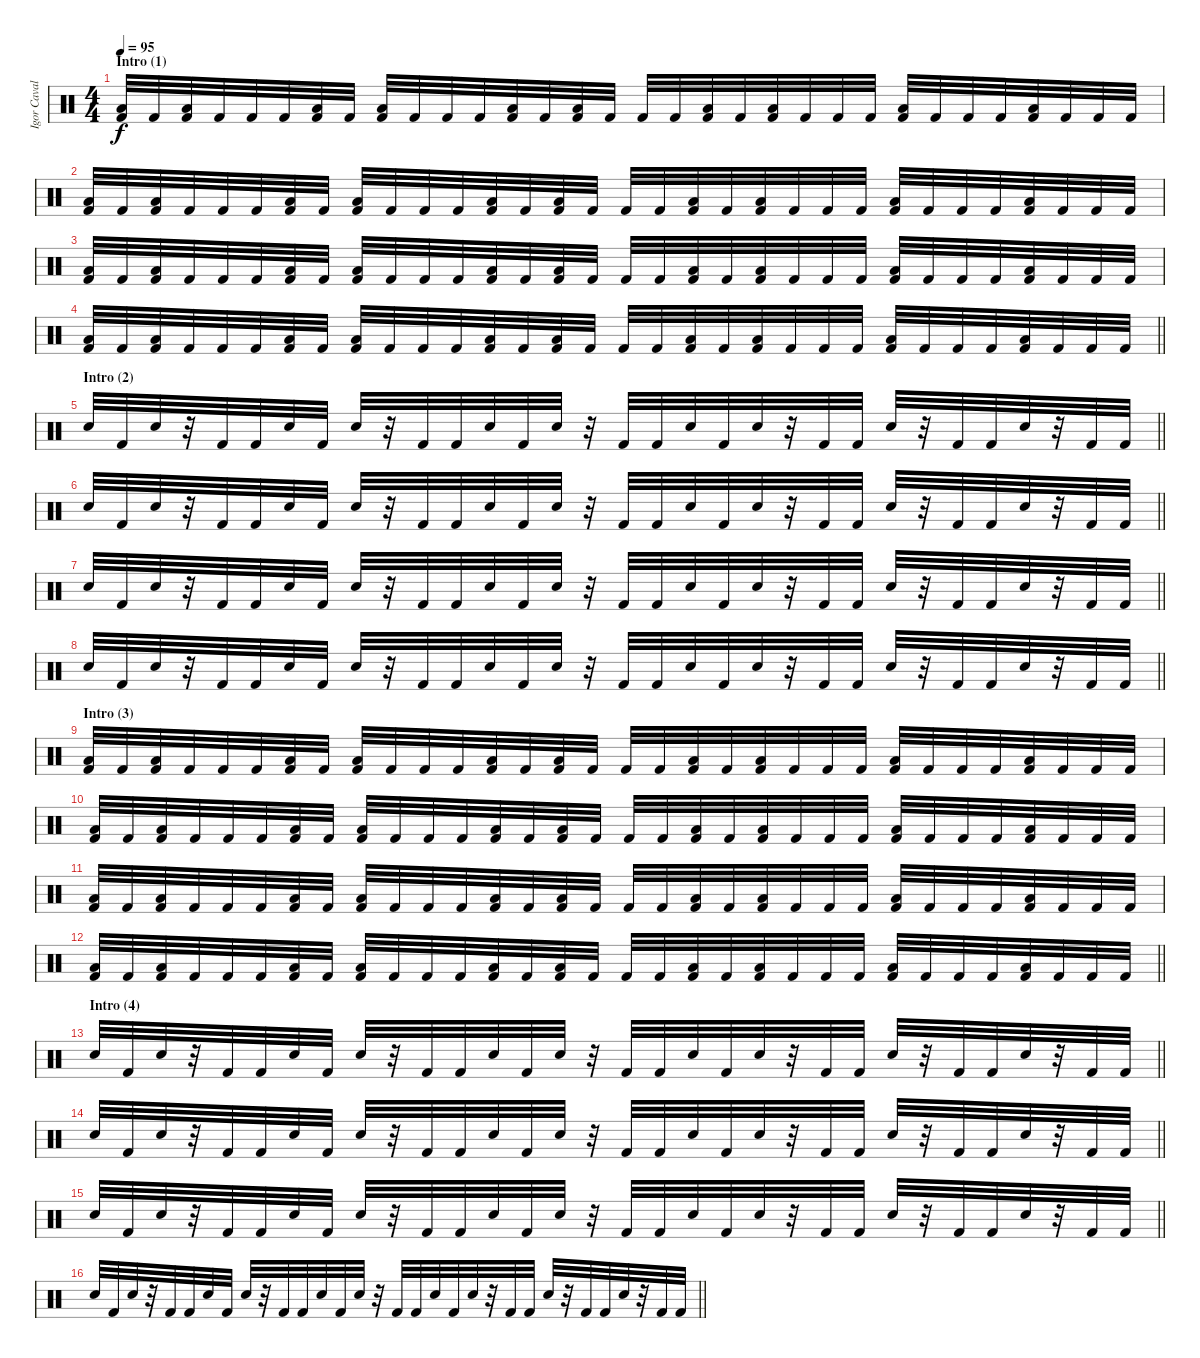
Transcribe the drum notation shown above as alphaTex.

\track ("Igor Cavalera" "Igor Caval") {instrument percussion}
\staff {score}
\articulation defaults
\ts (4 4)
\section ("" "Intro (1)")
\tempo 95
\clef neutral
\ks c
("Low Floor Tom (hit)" "Kick (hit) 2").32{dy f} "Kick (hit) 2".32 ("Low Floor Tom (hit)" "Kick (hit) 2").32 "Kick (hit) 2".32 "Kick (hit) 2".32 "Kick (hit) 2".32 ("Low Floor Tom (hit)" "Kick (hit) 2").32 "Kick (hit) 2".32 ("Low Floor Tom (hit)" "Kick (hit) 2").32 "Kick (hit) 2".32 "Kick (hit) 2".32 "Kick (hit) 2".32 ("Low Floor Tom (hit)" "Kick (hit) 2").32 "Kick (hit) 2".32 ("Low Floor Tom (hit)" "Kick (hit) 2").32 "Kick (hit) 2".32 "Kick (hit) 2".32 "Kick (hit) 2".32 ("Low Floor Tom (hit)" "Kick (hit) 2").32 "Kick (hit) 2".32 ("Low Floor Tom (hit)" "Kick (hit) 2").32 "Kick (hit) 2".32 "Kick (hit) 2".32 "Kick (hit) 2".32 ("Low Floor Tom (hit)" "Kick (hit) 2").32 "Kick (hit) 2".32 "Kick (hit) 2".32 "Kick (hit) 2".32 ("Low Floor Tom (hit)" "Kick (hit) 2").32 "Kick (hit) 2".32 "Kick (hit) 2".32 "Kick (hit) 2".32 |
("Low Floor Tom (hit)" "Kick (hit) 2").32 "Kick (hit) 2".32 ("Low Floor Tom (hit)" "Kick (hit) 2").32 "Kick (hit) 2".32 "Kick (hit) 2".32 "Kick (hit) 2".32 ("Low Floor Tom (hit)" "Kick (hit) 2").32 "Kick (hit) 2".32 ("Low Floor Tom (hit)" "Kick (hit) 2").32 "Kick (hit) 2".32 "Kick (hit) 2".32 "Kick (hit) 2".32 ("Low Floor Tom (hit)" "Kick (hit) 2").32 "Kick (hit) 2".32 ("Low Floor Tom (hit)" "Kick (hit) 2").32 "Kick (hit) 2".32 "Kick (hit) 2".32 "Kick (hit) 2".32 ("Low Floor Tom (hit)" "Kick (hit) 2").32 "Kick (hit) 2".32 ("Low Floor Tom (hit)" "Kick (hit) 2").32 "Kick (hit) 2".32 "Kick (hit) 2".32 "Kick (hit) 2".32 ("Low Floor Tom (hit)" "Kick (hit) 2").32 "Kick (hit) 2".32 "Kick (hit) 2".32 "Kick (hit) 2".32 ("Low Floor Tom (hit)" "Kick (hit) 2").32 "Kick (hit) 2".32 "Kick (hit) 2".32 "Kick (hit) 2".32 |
("Low Floor Tom (hit)" "Kick (hit) 2").32 "Kick (hit) 2".32 ("Low Floor Tom (hit)" "Kick (hit) 2").32 "Kick (hit) 2".32 "Kick (hit) 2".32 "Kick (hit) 2".32 ("Low Floor Tom (hit)" "Kick (hit) 2").32 "Kick (hit) 2".32 ("Low Floor Tom (hit)" "Kick (hit) 2").32 "Kick (hit) 2".32 "Kick (hit) 2".32 "Kick (hit) 2".32 ("Low Floor Tom (hit)" "Kick (hit) 2").32 "Kick (hit) 2".32 ("Low Floor Tom (hit)" "Kick (hit) 2").32 "Kick (hit) 2".32 "Kick (hit) 2".32 "Kick (hit) 2".32 ("Low Floor Tom (hit)" "Kick (hit) 2").32 "Kick (hit) 2".32 ("Low Floor Tom (hit)" "Kick (hit) 2").32 "Kick (hit) 2".32 "Kick (hit) 2".32 "Kick (hit) 2".32 ("Low Floor Tom (hit)" "Kick (hit) 2").32 "Kick (hit) 2".32 "Kick (hit) 2".32 "Kick (hit) 2".32 ("Low Floor Tom (hit)" "Kick (hit) 2").32 "Kick (hit) 2".32 "Kick (hit) 2".32 "Kick (hit) 2".32 |
\barLineRight lightlight
("Low Floor Tom (hit)" "Kick (hit) 2").32 "Kick (hit) 2".32 ("Low Floor Tom (hit)" "Kick (hit) 2").32 "Kick (hit) 2".32 "Kick (hit) 2".32 "Kick (hit) 2".32 ("Low Floor Tom (hit)" "Kick (hit) 2").32 "Kick (hit) 2".32 ("Low Floor Tom (hit)" "Kick (hit) 2").32 "Kick (hit) 2".32 "Kick (hit) 2".32 "Kick (hit) 2".32 ("Low Floor Tom (hit)" "Kick (hit) 2").32 "Kick (hit) 2".32 ("Low Floor Tom (hit)" "Kick (hit) 2").32 "Kick (hit) 2".32 "Kick (hit) 2".32 "Kick (hit) 2".32 ("Low Floor Tom (hit)" "Kick (hit) 2").32 "Kick (hit) 2".32 ("Low Floor Tom (hit)" "Kick (hit) 2").32 "Kick (hit) 2".32 "Kick (hit) 2".32 "Kick (hit) 2".32 ("Low Floor Tom (hit)" "Kick (hit) 2").32 "Kick (hit) 2".32 "Kick (hit) 2".32 "Kick (hit) 2".32 ("Low Floor Tom (hit)" "Kick (hit) 2").32 "Kick (hit) 2".32 "Kick (hit) 2".32 "Kick (hit) 2".32 |
\section ("" "Intro (2)")
\barLineRight lightlight "Electric Snare (hit)".32 "Kick (hit) 2".32 "Electric Snare (hit)".32
r.32 "Kick (hit) 2".32 "Kick (hit) 2".32 "Electric Snare (hit)".32 "Kick (hit) 2".32 "Electric Snare (hit)".32 r.32 "Kick (hit) 2".32 "Kick (hit) 2".32 "Electric Snare (hit)".32 "Kick (hit) 2".32 "Electric Snare (hit)".32 r.32 "Kick (hit) 2".32 "Kick (hit) 2".32 "Electric Snare (hit)".32 "Kick (hit) 2".32 "Electric Snare (hit)".32 r.32 "Kick (hit) 2".32 "Kick (hit) 2".32 "Electric Snare (hit)".32 r.32 "Kick (hit) 2".32 "Kick (hit) 2".32 "Electric Snare (hit)".32 r.32 "Kick (hit) 2".32 "Kick (hit) 2".32 |
\barLineRight lightlight "Electric Snare (hit)".32 "Kick (hit) 2".32 "Electric Snare (hit)".32
r.32 "Kick (hit) 2".32 "Kick (hit) 2".32 "Electric Snare (hit)".32 "Kick (hit) 2".32 "Electric Snare (hit)".32 r.32 "Kick (hit) 2".32 "Kick (hit) 2".32 "Electric Snare (hit)".32 "Kick (hit) 2".32 "Electric Snare (hit)".32 r.32 "Kick (hit) 2".32 "Kick (hit) 2".32 "Electric Snare (hit)".32 "Kick (hit) 2".32 "Electric Snare (hit)".32 r.32 "Kick (hit) 2".32 "Kick (hit) 2".32 "Electric Snare (hit)".32 r.32 "Kick (hit) 2".32 "Kick (hit) 2".32 "Electric Snare (hit)".32 r.32 "Kick (hit) 2".32 "Kick (hit) 2".32 |
\barLineRight lightlight "Electric Snare (hit)".32 "Kick (hit) 2".32 "Electric Snare (hit)".32
r.32 "Kick (hit) 2".32 "Kick (hit) 2".32 "Electric Snare (hit)".32 "Kick (hit) 2".32 "Electric Snare (hit)".32 r.32 "Kick (hit) 2".32 "Kick (hit) 2".32 "Electric Snare (hit)".32 "Kick (hit) 2".32 "Electric Snare (hit)".32 r.32 "Kick (hit) 2".32 "Kick (hit) 2".32 "Electric Snare (hit)".32 "Kick (hit) 2".32 "Electric Snare (hit)".32 r.32 "Kick (hit) 2".32 "Kick (hit) 2".32 "Electric Snare (hit)".32 r.32 "Kick (hit) 2".32 "Kick (hit) 2".32 "Electric Snare (hit)".32 r.32 "Kick (hit) 2".32 "Kick (hit) 2".32 |
\barLineRight lightlight "Electric Snare (hit)".32 "Kick (hit) 2".32 "Electric Snare (hit)".32
r.32 "Kick (hit) 2".32 "Kick (hit) 2".32 "Electric Snare (hit)".32 "Kick (hit) 2".32 "Electric Snare (hit)".32 r.32 "Kick (hit) 2".32 "Kick (hit) 2".32 "Electric Snare (hit)".32 "Kick (hit) 2".32 "Electric Snare (hit)".32 r.32 "Kick (hit) 2".32 "Kick (hit) 2".32 "Electric Snare (hit)".32 "Kick (hit) 2".32 "Electric Snare (hit)".32 r.32 "Kick (hit) 2".32 "Kick (hit) 2".32 "Electric Snare (hit)".32 r.32 "Kick (hit) 2".32 "Kick (hit) 2".32 "Electric Snare (hit)".32 r.32 "Kick (hit) 2".32 "Kick (hit) 2".32 |
\section ("" "Intro (3)")
("Low Floor Tom (hit)" "Kick (hit) 2").32 "Kick (hit) 2".32 ("Low Floor Tom (hit)" "Kick (hit) 2").32 "Kick (hit) 2".32 "Kick (hit) 2".32 "Kick (hit) 2".32 ("Low Floor Tom (hit)" "Kick (hit) 2").32 "Kick (hit) 2".32 ("Low Floor Tom (hit)" "Kick (hit) 2").32 "Kick (hit) 2".32 "Kick (hit) 2".32 "Kick (hit) 2".32 ("Low Floor Tom (hit)" "Kick (hit) 2").32 "Kick (hit) 2".32 ("Low Floor Tom (hit)" "Kick (hit) 2").32 "Kick (hit) 2".32 "Kick (hit) 2".32 "Kick (hit) 2".32 ("Low Floor Tom (hit)" "Kick (hit) 2").32 "Kick (hit) 2".32 ("Low Floor Tom (hit)" "Kick (hit) 2").32 "Kick (hit) 2".32 "Kick (hit) 2".32 "Kick (hit) 2".32 ("Low Floor Tom (hit)" "Kick (hit) 2").32 "Kick (hit) 2".32 "Kick (hit) 2".32 "Kick (hit) 2".32 ("Low Floor Tom (hit)" "Kick (hit) 2").32 "Kick (hit) 2".32 "Kick (hit) 2".32 "Kick (hit) 2".32 |
("Low Floor Tom (hit)" "Kick (hit) 2").32 "Kick (hit) 2".32 ("Low Floor Tom (hit)" "Kick (hit) 2").32 "Kick (hit) 2".32 "Kick (hit) 2".32 "Kick (hit) 2".32 ("Low Floor Tom (hit)" "Kick (hit) 2").32 "Kick (hit) 2".32 ("Low Floor Tom (hit)" "Kick (hit) 2").32 "Kick (hit) 2".32 "Kick (hit) 2".32 "Kick (hit) 2".32 ("Low Floor Tom (hit)" "Kick (hit) 2").32 "Kick (hit) 2".32 ("Low Floor Tom (hit)" "Kick (hit) 2").32 "Kick (hit) 2".32 "Kick (hit) 2".32 "Kick (hit) 2".32 ("Low Floor Tom (hit)" "Kick (hit) 2").32 "Kick (hit) 2".32 ("Low Floor Tom (hit)" "Kick (hit) 2").32 "Kick (hit) 2".32 "Kick (hit) 2".32 "Kick (hit) 2".32 ("Low Floor Tom (hit)" "Kick (hit) 2").32 "Kick (hit) 2".32 "Kick (hit) 2".32 "Kick (hit) 2".32 ("Low Floor Tom (hit)" "Kick (hit) 2").32 "Kick (hit) 2".32 "Kick (hit) 2".32 "Kick (hit) 2".32 |
("Low Floor Tom (hit)" "Kick (hit) 2").32 "Kick (hit) 2".32 ("Low Floor Tom (hit)" "Kick (hit) 2").32 "Kick (hit) 2".32 "Kick (hit) 2".32 "Kick (hit) 2".32 ("Low Floor Tom (hit)" "Kick (hit) 2").32 "Kick (hit) 2".32 ("Low Floor Tom (hit)" "Kick (hit) 2").32 "Kick (hit) 2".32 "Kick (hit) 2".32 "Kick (hit) 2".32 ("Low Floor Tom (hit)" "Kick (hit) 2").32 "Kick (hit) 2".32 ("Low Floor Tom (hit)" "Kick (hit) 2").32 "Kick (hit) 2".32 "Kick (hit) 2".32 "Kick (hit) 2".32 ("Low Floor Tom (hit)" "Kick (hit) 2").32 "Kick (hit) 2".32 ("Low Floor Tom (hit)" "Kick (hit) 2").32 "Kick (hit) 2".32 "Kick (hit) 2".32 "Kick (hit) 2".32 ("Low Floor Tom (hit)" "Kick (hit) 2").32 "Kick (hit) 2".32 "Kick (hit) 2".32 "Kick (hit) 2".32 ("Low Floor Tom (hit)" "Kick (hit) 2").32 "Kick (hit) 2".32 "Kick (hit) 2".32 "Kick (hit) 2".32 |
\barLineRight lightlight
("Low Floor Tom (hit)" "Kick (hit) 2").32 "Kick (hit) 2".32 ("Low Floor Tom (hit)" "Kick (hit) 2").32 "Kick (hit) 2".32 "Kick (hit) 2".32 "Kick (hit) 2".32 ("Low Floor Tom (hit)" "Kick (hit) 2").32 "Kick (hit) 2".32 ("Low Floor Tom (hit)" "Kick (hit) 2").32 "Kick (hit) 2".32 "Kick (hit) 2".32 "Kick (hit) 2".32 ("Low Floor Tom (hit)" "Kick (hit) 2").32 "Kick (hit) 2".32 ("Low Floor Tom (hit)" "Kick (hit) 2").32 "Kick (hit) 2".32 "Kick (hit) 2".32 "Kick (hit) 2".32 ("Low Floor Tom (hit)" "Kick (hit) 2").32 "Kick (hit) 2".32 ("Low Floor Tom (hit)" "Kick (hit) 2").32 "Kick (hit) 2".32 "Kick (hit) 2".32 "Kick (hit) 2".32 ("Low Floor Tom (hit)" "Kick (hit) 2").32 "Kick (hit) 2".32 "Kick (hit) 2".32 "Kick (hit) 2".32 ("Low Floor Tom (hit)" "Kick (hit) 2").32 "Kick (hit) 2".32 "Kick (hit) 2".32 "Kick (hit) 2".32 |
\section ("" "Intro (4)")
\barLineRight lightlight "Electric Snare (hit)".32 "Kick (hit) 2".32 "Electric Snare (hit)".32
r.32 "Kick (hit) 2".32 "Kick (hit) 2".32 "Electric Snare (hit)".32 "Kick (hit) 2".32 "Electric Snare (hit)".32 r.32 "Kick (hit) 2".32 "Kick (hit) 2".32 "Electric Snare (hit)".32 "Kick (hit) 2".32 "Electric Snare (hit)".32 r.32 "Kick (hit) 2".32 "Kick (hit) 2".32 "Electric Snare (hit)".32 "Kick (hit) 2".32 "Electric Snare (hit)".32 r.32 "Kick (hit) 2".32 "Kick (hit) 2".32 "Electric Snare (hit)".32 r.32 "Kick (hit) 2".32 "Kick (hit) 2".32 "Electric Snare (hit)".32 r.32 "Kick (hit) 2".32 "Kick (hit) 2".32 |
\barLineRight lightlight "Electric Snare (hit)".32 "Kick (hit) 2".32 "Electric Snare (hit)".32
r.32 "Kick (hit) 2".32 "Kick (hit) 2".32 "Electric Snare (hit)".32 "Kick (hit) 2".32 "Electric Snare (hit)".32 r.32 "Kick (hit) 2".32 "Kick (hit) 2".32 "Electric Snare (hit)".32 "Kick (hit) 2".32 "Electric Snare (hit)".32 r.32 "Kick (hit) 2".32 "Kick (hit) 2".32 "Electric Snare (hit)".32 "Kick (hit) 2".32 "Electric Snare (hit)".32 r.32 "Kick (hit) 2".32 "Kick (hit) 2".32 "Electric Snare (hit)".32 r.32 "Kick (hit) 2".32 "Kick (hit) 2".32 "Electric Snare (hit)".32 r.32 "Kick (hit) 2".32 "Kick (hit) 2".32 |
\barLineRight lightlight "Electric Snare (hit)".32 "Kick (hit) 2".32 "Electric Snare (hit)".32
r.32 "Kick (hit) 2".32 "Kick (hit) 2".32 "Electric Snare (hit)".32 "Kick (hit) 2".32 "Electric Snare (hit)".32 r.32 "Kick (hit) 2".32 "Kick (hit) 2".32 "Electric Snare (hit)".32 "Kick (hit) 2".32 "Electric Snare (hit)".32 r.32 "Kick (hit) 2".32 "Kick (hit) 2".32 "Electric Snare (hit)".32 "Kick (hit) 2".32 "Electric Snare (hit)".32 r.32 "Kick (hit) 2".32 "Kick (hit) 2".32 "Electric Snare (hit)".32 r.32 "Kick (hit) 2".32 "Kick (hit) 2".32 "Electric Snare (hit)".32 r.32 "Kick (hit) 2".32 "Kick (hit) 2".32 |
\barLineRight lightlight "Electric Snare (hit)".32 "Kick (hit) 2".32 "Electric Snare (hit)".32
r.32 "Kick (hit) 2".32 "Kick (hit) 2".32 "Electric Snare (hit)".32 "Kick (hit) 2".32 "Electric Snare (hit)".32 r.32 "Kick (hit) 2".32 "Kick (hit) 2".32 "Electric Snare (hit)".32 "Kick (hit) 2".32 "Electric Snare (hit)".32 r.32 "Kick (hit) 2".32 "Kick (hit) 2".32 "Electric Snare (hit)".32 "Kick (hit) 2".32 "Electric Snare (hit)".32 r.32 "Kick (hit) 2".32 "Kick (hit) 2".32 "Electric Snare (hit)".32 r.32 "Kick (hit) 2".32 "Kick (hit) 2".32 "Electric Snare (hit)".32 r.32 "Kick (hit) 2".32 "Kick (hit) 2".32
